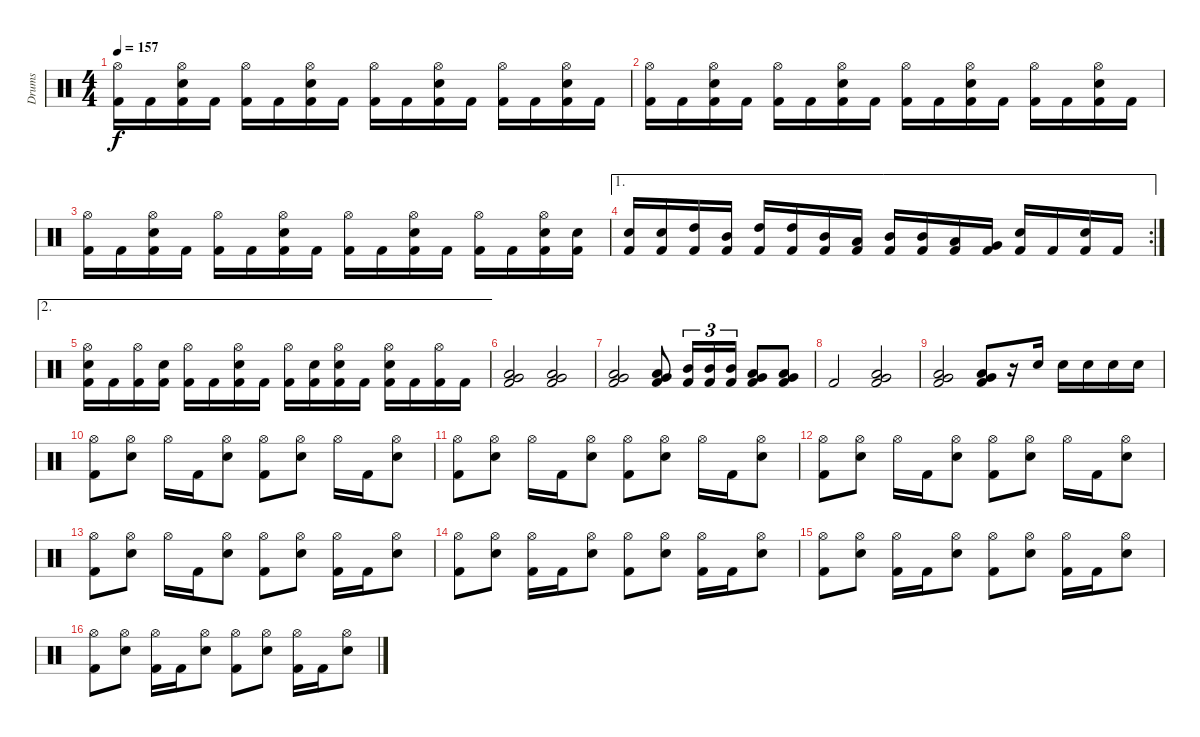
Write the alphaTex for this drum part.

\track ("Drums" "Drums") {instrument percussion}
\staff {score}
\articulation defaults
\ts (4 4)
\tempo 157
\clef neutral
\ks c
("Kick (hit) 2" "Hi-Hat (open)").16{dy f} "Kick (hit) 2".16 ("Kick (hit) 2" "Electric Snare (hit)" "Hi-Hat (open)").16 "Kick (hit) 2".16 ("Kick (hit) 2" "Hi-Hat (open)").16 "Kick (hit) 2".16 ("Kick (hit) 2" "Electric Snare (hit)" "Hi-Hat (open)").16 "Kick (hit) 2".16 ("Kick (hit) 2" "Hi-Hat (open)").16 "Kick (hit) 2".16 ("Kick (hit) 2" "Electric Snare (hit)" "Hi-Hat (open)").16 "Kick (hit) 2".16 ("Kick (hit) 2" "Hi-Hat (open)").16 "Kick (hit) 2".16 ("Kick (hit) 2" "Electric Snare (hit)" "Hi-Hat (open)").16 "Kick (hit) 2".16 |
("Kick (hit) 2" "Hi-Hat (open)").16 "Kick (hit) 2".16 ("Kick (hit) 2" "Electric Snare (hit)" "Hi-Hat (open)").16 "Kick (hit) 2".16 ("Kick (hit) 2" "Hi-Hat (open)").16 "Kick (hit) 2".16 ("Kick (hit) 2" "Electric Snare (hit)" "Hi-Hat (open)").16 "Kick (hit) 2".16 ("Kick (hit) 2" "Hi-Hat (open)").16 "Kick (hit) 2".16 ("Kick (hit) 2" "Electric Snare (hit)" "Hi-Hat (open)").16 "Kick (hit) 2".16 ("Kick (hit) 2" "Hi-Hat (open)").16 "Kick (hit) 2".16 ("Kick (hit) 2" "Electric Snare (hit)" "Hi-Hat (open)").16 "Kick (hit) 2".16 |
("Kick (hit) 2" "Hi-Hat (open)").16 "Kick (hit) 2".16 ("Kick (hit) 2" "Electric Snare (hit)" "Hi-Hat (open)").16 "Kick (hit) 2".16 ("Kick (hit) 2" "Hi-Hat (open)").16 "Kick (hit) 2".16 ("Kick (hit) 2" "Electric Snare (hit)" "Hi-Hat (open)").16 "Kick (hit) 2".16 ("Kick (hit) 2" "Hi-Hat (open)").16 "Kick (hit) 2".16 ("Kick (hit) 2" "Electric Snare (hit)" "Hi-Hat (open)").16 "Kick (hit) 2".16 ("Kick (hit) 2" "Hi-Hat (open)").16 "Kick (hit) 2".16 ("Kick (hit) 2" "Electric Snare (hit)" "Hi-Hat (open)").16 ("Kick (hit) 2" "Electric Snare (hit)").16 |
\ae 1
\rc 2
("Kick (hit) 2" "Electric Snare (hit)").16 ("Kick (hit) 2" "Electric Snare (hit)").16 ("Kick (hit) 2" "High Tom (hit)").16 ("Kick (hit) 2" "Mid Tom (hit)").16 ("Kick (hit) 2" "High Tom (hit)").16 ("Kick (hit) 2" "High Tom (hit)").16 ("Kick (hit) 2" "Mid Tom (hit)").16 ("Kick (hit) 2" "Low Tom (hit)").16 ("Kick (hit) 2" "Mid Tom (hit)").16 ("Kick (hit) 2" "Mid Tom (hit)").16 ("Kick (hit) 2" "Low Tom (hit)").16 ("Kick (hit) 2" "Very Low Tom (hit)").16 ("Kick (hit) 2" "Electric Snare (hit)").16 "Kick (hit) 2".16 ("Kick (hit) 2" "Electric Snare (hit)").16 "Kick (hit) 2".16 |
\ae 2
("Kick (hit) 2" "Electric Snare (hit)" "Hi-Hat (open)").16 "Kick (hit) 2".16 ("Kick (hit) 2" "Hi-Hat (open)").16 ("Kick (hit) 2" "Electric Snare (hit)").16 ("Kick (hit) 2" "Hi-Hat (open)").16 "Kick (hit) 2".16 ("Kick (hit) 2" "Electric Snare (hit)" "Hi-Hat (open)").16 "Kick (hit) 2".16 ("Kick (hit) 2" "Hi-Hat (open)").16 ("Kick (hit) 2" "Electric Snare (hit)").16 ("Kick (hit) 2" "Electric Snare (hit)" "Hi-Hat (open)").16 "Kick (hit) 2".16 ("Kick (hit) 2" "Electric Snare (hit)" "Hi-Hat (open)").16 "Kick (hit) 2".16 ("Kick (hit) 2" "Hi-Hat (open)").16 "Kick (hit) 2".16 |
("Kick (hit) 2" "Low Tom (hit)" "Very Low Tom (hit)").2 ("Kick (hit) 2" "Low Tom (hit)" "Very Low Tom (hit)").2 |
("Kick (hit) 2" "Low Tom (hit)" "Very Low Tom (hit)").2 ("Kick (hit) 2" "Low Tom (hit)" "Very Low Tom (hit)").8 ("Kick (hit) 2" "Mid Tom (hit)").16{tu (3 2)} ("Kick (hit) 2" "Mid Tom (hit)").16{tu (3 2)} ("Kick (hit) 2" "Mid Tom (hit)").16{tu (3 2)} ("Kick (hit) 2" "Low Tom (hit)" "Very Low Tom (hit)").8 ("Kick (hit) 2" "Low Tom (hit)" "Very Low Tom (hit)").8 |
"Kick (hit) 2".2 ("Kick (hit) 2" "Low Tom (hit)" "Very Low Tom (hit)").2 |
("Kick (hit) 2" "Low Tom (hit)" "Very Low Tom (hit)").2 ("Kick (hit) 2" "Low Tom (hit)" "Very Low Tom (hit)").8 r.16 "Electric Snare (hit)".16 "Electric Snare (hit)".16 "Electric Snare (hit)".16 "Electric Snare (hit)".16 "Electric Snare (hit)".16 |
("Kick (hit) 2" "Hi-Hat (open)").8 ("Electric Snare (hit)" "Hi-Hat (open)").8 "Hi-Hat (open)".16 "Kick (hit) 2".16 ("Electric Snare (hit)" "Hi-Hat (open)").8 ("Kick (hit) 2" "Hi-Hat (open)").8 ("Electric Snare (hit)" "Hi-Hat (open)").8 "Hi-Hat (open)".16 "Kick (hit) 2".16 ("Electric Snare (hit)" "Hi-Hat (open)").8 |
("Kick (hit) 2" "Hi-Hat (open)").8 ("Electric Snare (hit)" "Hi-Hat (open)").8 "Hi-Hat (open)".16 "Kick (hit) 2".16 ("Electric Snare (hit)" "Hi-Hat (open)").8 ("Kick (hit) 2" "Hi-Hat (open)").8 ("Electric Snare (hit)" "Hi-Hat (open)").8 "Hi-Hat (open)".16 "Kick (hit) 2".16 ("Electric Snare (hit)" "Hi-Hat (open)").8 |
("Kick (hit) 2" "Hi-Hat (open)").8 ("Electric Snare (hit)" "Hi-Hat (open)").8 "Hi-Hat (open)".16 "Kick (hit) 2".16 ("Electric Snare (hit)" "Hi-Hat (open)").8 ("Kick (hit) 2" "Hi-Hat (open)").8 ("Electric Snare (hit)" "Hi-Hat (open)").8 "Hi-Hat (open)".16 "Kick (hit) 2".16 ("Electric Snare (hit)" "Hi-Hat (open)").8 |
("Kick (hit) 2" "Hi-Hat (open)").8 ("Electric Snare (hit)" "Hi-Hat (open)").8 "Hi-Hat (open)".16 "Kick (hit) 2".16 ("Electric Snare (hit)" "Hi-Hat (open)").8 ("Kick (hit) 2" "Hi-Hat (open)").8 ("Electric Snare (hit)" "Hi-Hat (open)").8 ("Kick (hit) 2" "Hi-Hat (open)").16 "Kick (hit) 2".16 ("Electric Snare (hit)" "Hi-Hat (open)").8 |
("Kick (hit) 2" "Hi-Hat (open)").8 ("Electric Snare (hit)" "Hi-Hat (open)").8 ("Kick (hit) 2" "Hi-Hat (open)").16 "Kick (hit) 2".16 ("Electric Snare (hit)" "Hi-Hat (open)").8 ("Kick (hit) 2" "Hi-Hat (open)").8 ("Electric Snare (hit)" "Hi-Hat (open)").8 ("Kick (hit) 2" "Hi-Hat (open)").16 "Kick (hit) 2".16 ("Electric Snare (hit)" "Hi-Hat (open)").8 |
("Kick (hit) 2" "Hi-Hat (open)").8 ("Electric Snare (hit)" "Hi-Hat (open)").8 ("Kick (hit) 2" "Hi-Hat (open)").16 "Kick (hit) 2".16 ("Electric Snare (hit)" "Hi-Hat (open)").8 ("Kick (hit) 2" "Hi-Hat (open)").8 ("Electric Snare (hit)" "Hi-Hat (open)").8 ("Kick (hit) 2" "Hi-Hat (open)").16 "Kick (hit) 2".16 ("Electric Snare (hit)" "Hi-Hat (open)").8 |
("Kick (hit) 2" "Hi-Hat (open)").8 ("Electric Snare (hit)" "Hi-Hat (open)").8 ("Kick (hit) 2" "Hi-Hat (open)").16 "Kick (hit) 2".16 ("Electric Snare (hit)" "Hi-Hat (open)").8 ("Kick (hit) 2" "Hi-Hat (open)").8 ("Electric Snare (hit)" "Hi-Hat (open)").8 ("Kick (hit) 2" "Hi-Hat (open)").16 "Kick (hit) 2".16 ("Electric Snare (hit)" "Hi-Hat (open)").8
